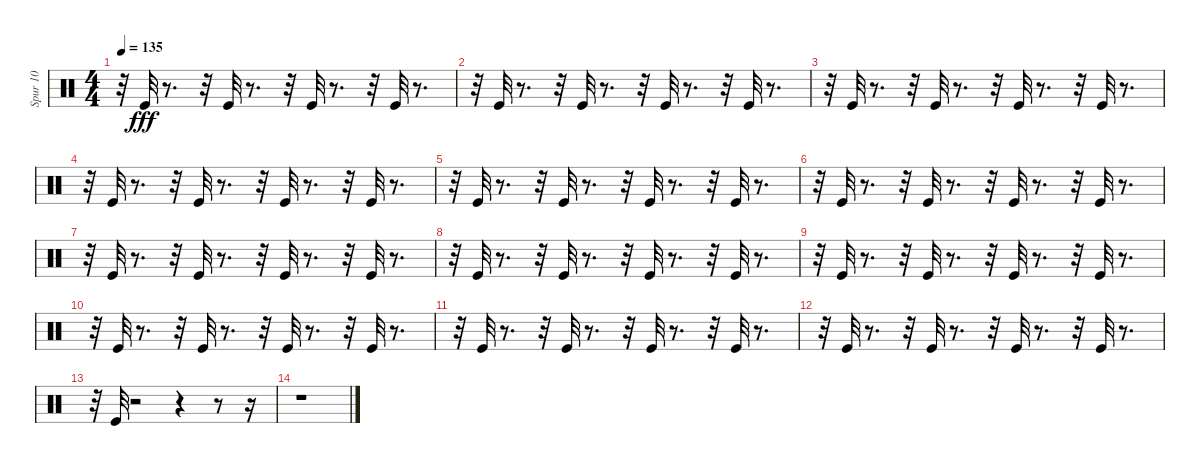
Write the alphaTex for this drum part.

\track ("Spur 10" "Spur 10") {instrument percussion}
\staff {score}
\articulation defaults
\ts (4 4)
\tempo 135
\clef neutral
\ks c
r.32{dy fff} "Kick (hit)".32 r.8{d} r.32 "Kick (hit)".32 r.8{d} r.32 "Kick (hit)".32 r.8{d} r.32 "Kick (hit)".32 r.8{d} |
r.32 "Kick (hit)".32 r.8{d} r.32 "Kick (hit)".32 r.8{d} r.32 "Kick (hit)".32 r.8{d} r.32 "Kick (hit)".32 r.8{d} |
r.32 "Kick (hit)".32 r.8{d} r.32 "Kick (hit)".32 r.8{d} r.32 "Kick (hit)".32 r.8{d} r.32 "Kick (hit)".32 r.8{d} |
r.32 "Kick (hit)".32 r.8{d} r.32 "Kick (hit)".32 r.8{d} r.32 "Kick (hit)".32 r.8{d} r.32 "Kick (hit)".32 r.8{d} |
r.32 "Kick (hit)".32 r.8{d} r.32 "Kick (hit)".32 r.8{d} r.32 "Kick (hit)".32 r.8{d} r.32 "Kick (hit)".32 r.8{d} |
r.32 "Kick (hit)".32 r.8{d} r.32 "Kick (hit)".32 r.8{d} r.32 "Kick (hit)".32 r.8{d} r.32 "Kick (hit)".32 r.8{d} |
r.32 "Kick (hit)".32 r.8{d} r.32 "Kick (hit)".32 r.8{d} r.32 "Kick (hit)".32 r.8{d} r.32 "Kick (hit)".32 r.8{d} |
r.32 "Kick (hit)".32 r.8{d} r.32 "Kick (hit)".32 r.8{d} r.32 "Kick (hit)".32 r.8{d} r.32 "Kick (hit)".32 r.8{d} |
r.32 "Kick (hit)".32 r.8{d} r.32 "Kick (hit)".32 r.8{d} r.32 "Kick (hit)".32 r.8{d} r.32 "Kick (hit)".32 r.8{d} |
r.32 "Kick (hit)".32 r.8{d} r.32 "Kick (hit)".32 r.8{d} r.32 "Kick (hit)".32 r.8{d} r.32 "Kick (hit)".32 r.8{d} |
r.32 "Kick (hit)".32 r.8{d} r.32 "Kick (hit)".32 r.8{d} r.32 "Kick (hit)".32 r.8{d} r.32 "Kick (hit)".32 r.8{d} |
r.32 "Kick (hit)".32 r.8{d} r.32 "Kick (hit)".32 r.8{d} r.32 "Kick (hit)".32 r.8{d} r.32 "Kick (hit)".32 r.8{d} |
r.32 "Kick (hit)".32 r.2 r.4 r.8 r.16 |
r.1
